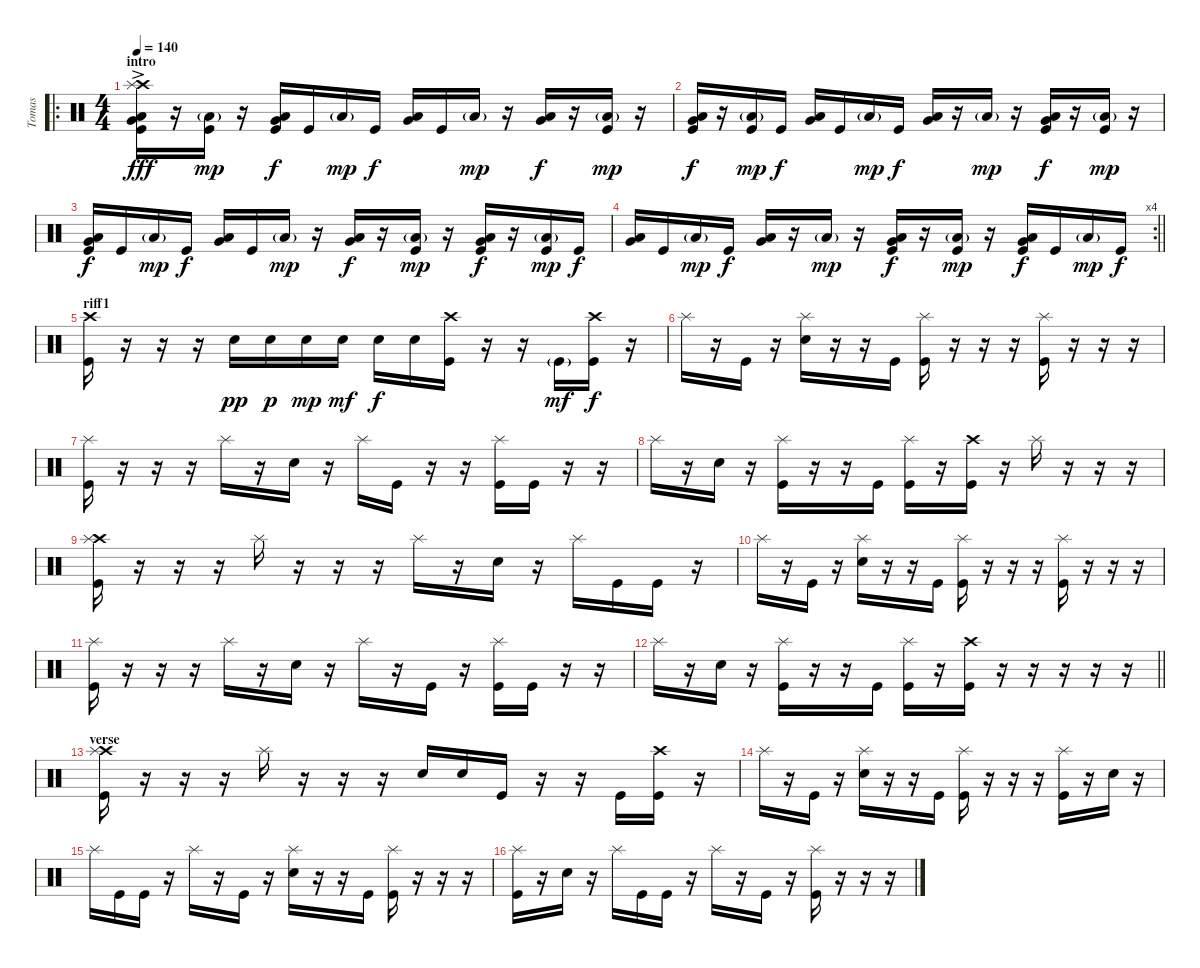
\track ("Tomas" "Tomas") {instrument percussion}
\staff {score}
\articulation defaults
\ro
\ts (4 4)
\section ("" "intro")
\tempo 140
\clef neutral
\ks c
("Crash high (hit)" "Splash (hit)"{ac} "Very Low Tom (hit)" "Low Floor Tom (hit)" "Kick (hit)").16{dy fff} r.16 ("Low Floor Tom (hit)"{g} "Kick (hit)").16{dy mp} r.16 ("Very Low Tom (hit)" "Low Floor Tom (hit)" "Kick (hit)").16{dy f} "Kick (hit)".16 "Low Floor Tom (hit)"{g}.16{dy mp} "Kick (hit)".16{dy f} ("Very Low Tom (hit)" "Low Floor Tom (hit)").16 "Kick (hit)".16 "Low Floor Tom (hit)"{g}.16{dy mp} r.16 ("Very Low Tom (hit)" "Low Floor Tom (hit)").16{dy f} r.16 ("Low Floor Tom (hit)"{g} "Kick (hit)").16{dy mp} r.16 |
("Very Low Tom (hit)" "Low Floor Tom (hit)" "Kick (hit)").16{dy f} r.16 ("Low Floor Tom (hit)"{g} "Kick (hit)").16{dy mp} "Kick (hit)".16{dy f} ("Very Low Tom (hit)" "Low Floor Tom (hit)").16 "Kick (hit)".16 "Low Floor Tom (hit)"{g}.16{dy mp} "Kick (hit)".16{dy f} ("Very Low Tom (hit)" "Low Floor Tom (hit)").16 r.16 "Low Floor Tom (hit)"{g}.16{dy mp} r.16 ("Very Low Tom (hit)" "Low Floor Tom (hit)" "Kick (hit)").16{dy f} r.16 ("Low Floor Tom (hit)"{g} "Kick (hit)").16{dy mp} r.16 |
("Very Low Tom (hit)" "Low Floor Tom (hit)" "Kick (hit)").16{dy f} "Kick (hit)".16 "Low Floor Tom (hit)"{g}.16{dy mp} "Kick (hit)".16{dy f} ("Very Low Tom (hit)" "Low Floor Tom (hit)").16 "Kick (hit)".16 "Low Floor Tom (hit)"{g}.16{dy mp} r.16 ("Very Low Tom (hit)" "Low Floor Tom (hit)").16{dy f} r.16 ("Low Floor Tom (hit)"{g} "Kick (hit)").16{dy mp} r.16 ("Very Low Tom (hit)" "Low Floor Tom (hit)" "Kick (hit)").16{dy f} r.16 ("Low Floor Tom (hit)"{g} "Kick (hit)").16{dy mp} "Kick (hit)".16{dy f} |
\rc 4
\barLineRight lightlight
("Very Low Tom (hit)" "Low Floor Tom (hit)").16 "Kick (hit)".16 "Low Floor Tom (hit)"{g}.16{dy mp} "Kick (hit)".16{dy f} ("Very Low Tom (hit)" "Low Floor Tom (hit)").16 r.16 "Low Floor Tom (hit)"{g}.16{dy mp} r.16 ("Very Low Tom (hit)" "Low Floor Tom (hit)" "Kick (hit)").16{dy f} r.16 ("Low Floor Tom (hit)"{g} "Kick (hit)").16{dy mp} r.16 ("Very Low Tom (hit)" "Low Floor Tom (hit)" "Kick (hit)").16{dy f} "Kick (hit)".16 "Low Floor Tom (hit)"{g}.16{dy mp} "Kick (hit)".16{dy f} |
\section ("" "riff1")
("Crash high (hit)" "Kick (hit)").16 r.16 r.16 r.16 "Electric Snare (hit)".16{dy pp} "Electric Snare (hit)".16{dy p} "Electric Snare (hit)".16{dy mp} "Electric Snare (hit)".16{dy mf} "Electric Snare (hit)".16{dy f} "Electric Snare (hit)".16 ("Crash high (hit)" "Kick (hit)").16 r.16 r.16 "Kick (hit)"{g}.16{dy mf} ("Crash high (hit)" "Kick (hit)").16{dy f} r.16 |
"Splash (hit)".16 r.16 "Kick (hit)".16 r.16 ("Splash (hit)" "Electric Snare (hit)").16 r.16 r.16 "Kick (hit)".16 ("Splash (hit)" "Kick (hit)").16 r.16 r.16 r.16 ("Splash (hit)" "Kick (hit)").16 r.16 r.16 r.16 |
("Splash (hit)" "Kick (hit)").16 r.16 r.16 r.16 "Splash (hit)".16 r.16 "Electric Snare (hit)".16 r.16 "Splash (hit)".16 "Kick (hit)".16 r.16 r.16 ("Splash (hit)" "Kick (hit)").16 "Kick (hit)".16 r.16 r.16 |
"Splash (hit)".16 r.16 "Electric Snare (hit)".16 r.16 ("Splash (hit)" "Kick (hit)").16 r.16 r.16 "Kick (hit)".16 ("Splash (hit)" "Kick (hit)").16 r.16 ("Crash high (hit)" "Kick (hit)").16 r.16 "Splash (hit)".16 r.16 r.16 r.16 |
("Crash high (hit)" "Splash (hit)" "Kick (hit)").16 r.16 r.16 r.16 "Splash (hit)".16 r.16 r.16 r.16 "Splash (hit)".16 r.16 "Electric Snare (hit)".16 r.16 "Splash (hit)".16 "Kick (hit)".16 "Kick (hit)".16 r.16 |
"Splash (hit)".16 r.16 "Kick (hit)".16 r.16 ("Splash (hit)" "Electric Snare (hit)").16 r.16 r.16 "Kick (hit)".16 ("Splash (hit)" "Kick (hit)").16 r.16 r.16 r.16 ("Splash (hit)" "Kick (hit)").16 r.16 r.16 r.16 |
("Splash (hit)" "Kick (hit)").16 r.16 r.16 r.16 "Splash (hit)".16 r.16 "Electric Snare (hit)".16 r.16 "Splash (hit)".16 r.16 "Kick (hit)".16 r.16 ("Splash (hit)" "Kick (hit)").16 "Kick (hit)".16 r.16 r.16 |
\barLineRight lightlight "Splash (hit)".16
r.16 "Electric Snare (hit)".16 r.16 ("Splash (hit)" "Kick (hit)").16 r.16 r.16 "Kick (hit)".16 ("Splash (hit)" "Kick (hit)").16 r.16 ("Crash high (hit)" "Kick (hit)").16 r.16 r.16 r.16 r.16 r.16 |
\section ("" "verse")
("Crash high (hit)" "Splash (hit)" "Kick (hit)").16 r.16 r.16 r.16 "Splash (hit)".16 r.16 r.16 r.16 "Electric Snare (hit)".16 "Electric Snare (hit)".16 "Kick (hit)".16 r.16 r.16 "Kick (hit)".16 ("Crash high (hit)" "Kick (hit)").16 r.16 |
"Splash (hit)".16 r.16 "Kick (hit)".16 r.16 ("Splash (hit)" "Electric Snare (hit)").16 r.16 r.16 "Kick (hit)".16 ("Splash (hit)" "Kick (hit)").16 r.16 r.16 r.16 ("Splash (hit)" "Kick (hit)").16 r.16 "Electric Snare (hit)".16 r.16 |
"Splash (hit)".16 "Kick (hit)".16 "Kick (hit)".16 r.16 "Splash (hit)".16 r.16 "Kick (hit)".16 r.16 ("Splash (hit)" "Electric Snare (hit)").16 r.16 r.16 "Kick (hit)".16 ("Splash (hit)" "Kick (hit)").16 r.16 r.16 r.16 |
("Splash (hit)" "Kick (hit)").16 r.16 "Electric Snare (hit)".16 r.16 "Splash (hit)".16 "Kick (hit)".16 "Kick (hit)".16 r.16 "Splash (hit)".16 r.16 "Kick (hit)".16 r.16 ("Splash (hit)" "Kick (hit)").16 r.16 r.16 r.16
